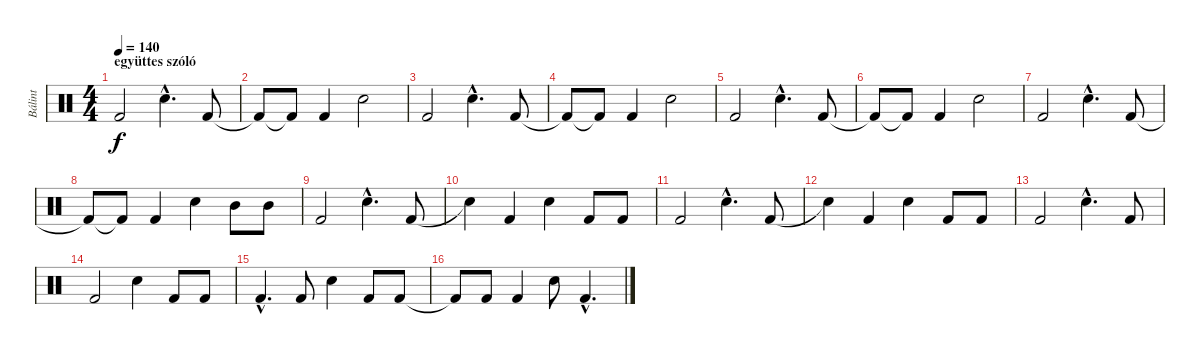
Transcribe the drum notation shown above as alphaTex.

\track ("Bálint" "Bálint") {instrument percussion}
\staff {score}
\articulation defaults
\ts (4 4)
\section ("" "együttes szóló")
\tempo 140
\clef neutral
\ks c "Kick (hit) 2".2{dy f} "Snare (hit) 2"{hac}.4{d} "Kick (hit) 2".8
|
"Kick (hit) 2"{t}.8 "Kick (hit) 2"{t}.8 "Kick (hit) 2".4 "Snare (hit) 2".2 |
"Kick (hit) 2".2 "Snare (hit) 2"{hac}.4{d} "Kick (hit) 2".8 |
"Kick (hit) 2"{t}.8 "Kick (hit) 2"{t}.8 "Kick (hit) 2".4 "Snare (hit) 2".2 |
"Kick (hit) 2".2 "Snare (hit) 2"{hac}.4{d} "Kick (hit) 2".8 |
"Kick (hit) 2"{t}.8 "Kick (hit) 2"{t}.8 "Kick (hit) 2".4 "Snare (hit) 2".2 |
"Kick (hit) 2".2 "Snare (hit) 2"{hac}.4{d} "Kick (hit) 2".8 |
"Kick (hit) 2"{t}.8 "Kick (hit) 2"{t}.8 "Kick (hit) 2".4 "Snare (hit) 2".4 "Mid Tom (hit)".8 "Mid Tom (hit)".8 |
"Kick (hit) 2".2 "Snare (hit) 2"{hac}.4{d} "Kick (hit) 2".8 |
"Snare (hit)"{t}.4 "Kick (hit) 2".4 "Snare (hit) 2".4 "Kick (hit) 2".8 "Kick (hit) 2".8 |
"Kick (hit) 2".2 "Snare (hit) 2"{hac}.4{d} "Kick (hit) 2".8 |
"Snare (hit)"{t}.4 "Kick (hit) 2".4 "Snare (hit) 2".4 "Kick (hit) 2".8 "Kick (hit) 2".8 |
"Kick (hit) 2".2 "Snare (hit) 2"{hac}.4{d} "Kick (hit) 2".8 |
"Kick (hit) 2".2 "Snare (hit) 2".4 "Kick (hit) 2".8 "Kick (hit) 2".8 |
"Kick (hit) 2"{hac}.4{d} "Kick (hit) 2".8 "Snare (hit) 2".4 "Kick (hit) 2".8 "Kick (hit) 2".8 |
"Kick (hit) 2"{t}.8 "Kick (hit) 2".8 "Kick (hit) 2".4 "Snare (hit) 2".8 "Kick (hit) 2"{hac}.4{d}
